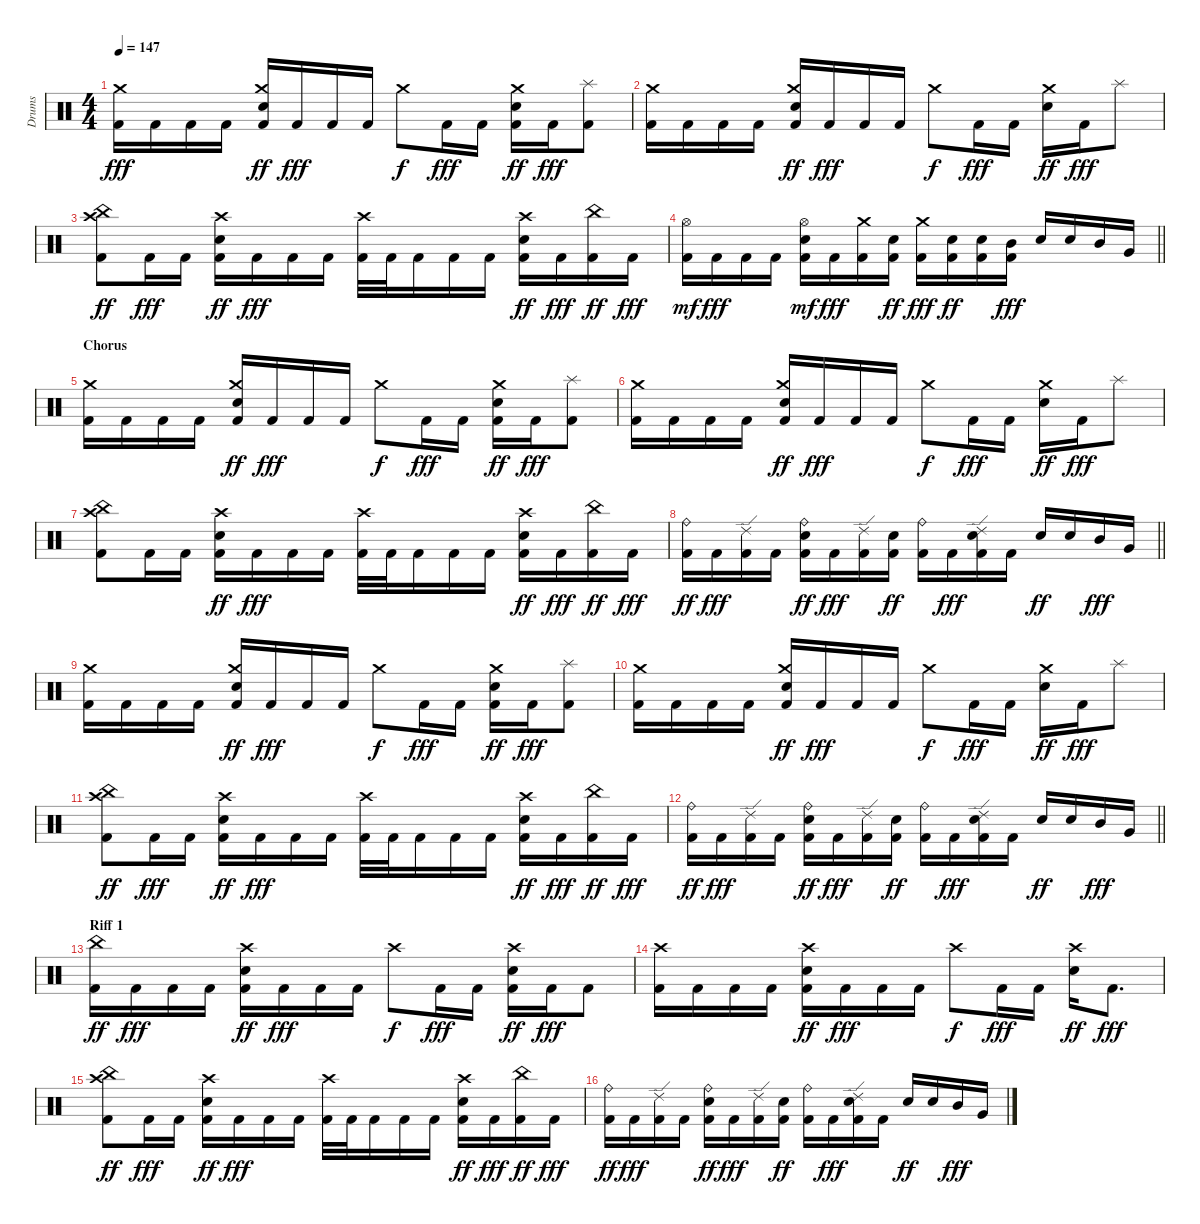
\track ("Drums" "Drums") {instrument percussion}
\staff {score}
\articulation defaults
\ts (4 4)
\tempo 147
\clef neutral
\ks c
("Kick (hit) 2" "Crash medium (hit)").16{dy fff} "Kick (hit) 2".16 "Kick (hit) 2".16 "Kick (hit) 2".16 ("Kick (hit) 2" "Snare (hit) 2" "Crash medium (hit)").16{dy ff} "Kick (hit) 2".16{dy fff} "Kick (hit) 2".16 "Kick (hit) 2".16 "Crash medium (hit)".8{dy f} "Kick (hit) 2".16{dy fff} "Kick (hit) 2".16 ("Kick (hit) 2" "Snare (hit) 2" "Crash medium (hit)").16{dy ff} "Kick (hit) 2".16{dy fff} ("Kick (hit) 2" "Splash (hit)").8 |
("Kick (hit) 2" "Crash medium (hit)").16 "Kick (hit) 2".16 "Kick (hit) 2".16 "Kick (hit) 2".16 ("Kick (hit) 2" "Snare (hit) 2" "Crash medium (hit)").16{dy ff} "Kick (hit) 2".16{dy fff} "Kick (hit) 2".16 "Kick (hit) 2".16 "Crash medium (hit)".8{dy f} "Kick (hit) 2".16{dy fff} "Kick (hit) 2".16 ("Snare (hit) 2" "Crash medium (hit)").16{dy ff} "Kick (hit) 2".16{dy fff} "Splash (hit)".8 |
("Kick (hit) 2" "China (hit)" "Crash high (hit)").8{dy ff} "Kick (hit) 2".16{dy fff} "Kick (hit) 2".16 ("Kick (hit) 2" "Snare (hit) 2" "Crash high (hit)").16{dy ff} "Kick (hit) 2".16{dy fff} "Kick (hit) 2".16 "Kick (hit) 2".16 ("Kick (hit) 2" "Crash high (hit)").32 "Kick (hit) 2".32 "Kick (hit) 2".16 "Kick (hit) 2".16 "Kick (hit) 2".16 ("Kick (hit) 2" "Snare (hit) 2" "Crash high (hit)").16{dy ff} "Kick (hit) 2".16{dy fff} ("Kick (hit) 2" "China (hit)").16{dy ff} "Kick (hit) 2".16{dy fff} |
\barLineRight lightlight
("Kick (hit) 2" "Hi-Hat (open)").16{dy mf} "Kick (hit) 2".16{dy fff} "Kick (hit) 2".16 "Kick (hit) 2".16 ("Kick (hit) 2" "Snare (hit) 2" "Hi-Hat (open)").16{dy mf} "Kick (hit) 2".16{dy fff} ("Kick (hit) 2" "Crash medium (hit)").16 ("Kick (hit) 2" "Snare (hit) 2").16{dy ff} ("Kick (hit) 2" "Crash medium (hit)").16{dy fff} ("Kick (hit) 2" "Snare (hit) 2").16{dy ff} ("Kick (hit) 2" "Snare (hit) 2").16 ("Kick (hit) 2" "Mid Tom (hit)").16{dy fff} "Snare (hit) 2".16 "Snare (hit) 2".16 "Mid Tom (hit)".16 "Very Low Tom (hit)".16 |
\section ("" "Chorus")
("Kick (hit) 2" "Crash medium (hit)").16 "Kick (hit) 2".16 "Kick (hit) 2".16 "Kick (hit) 2".16 ("Kick (hit) 2" "Snare (hit) 2" "Crash medium (hit)").16{dy ff} "Kick (hit) 2".16{dy fff} "Kick (hit) 2".16 "Kick (hit) 2".16 "Crash medium (hit)".8{dy f} "Kick (hit) 2".16{dy fff} "Kick (hit) 2".16 ("Kick (hit) 2" "Snare (hit) 2" "Crash medium (hit)").16{dy ff} "Kick (hit) 2".16{dy fff} ("Kick (hit) 2" "Splash (hit)").8 |
("Kick (hit) 2" "Crash medium (hit)").16 "Kick (hit) 2".16 "Kick (hit) 2".16 "Kick (hit) 2".16 ("Kick (hit) 2" "Snare (hit) 2" "Crash medium (hit)").16{dy ff} "Kick (hit) 2".16{dy fff} "Kick (hit) 2".16 "Kick (hit) 2".16 "Crash medium (hit)".8{dy f} "Kick (hit) 2".16{dy fff} "Kick (hit) 2".16 ("Snare (hit) 2" "Crash medium (hit)").16{dy ff} "Kick (hit) 2".16{dy fff} "Splash (hit)".8 |
("Kick (hit) 2" "China (hit)" "Crash high (hit)").8 "Kick (hit) 2".16 "Kick (hit) 2".16 ("Kick (hit) 2" "Snare (hit) 2" "Crash high (hit)").16{dy ff} "Kick (hit) 2".16{dy fff} "Kick (hit) 2".16 "Kick (hit) 2".16 ("Kick (hit) 2" "Crash high (hit)").32 "Kick (hit) 2".32 "Kick (hit) 2".16 "Kick (hit) 2".16 "Kick (hit) 2".16 ("Kick (hit) 2" "Snare (hit) 2" "Crash high (hit)").16{dy ff} "Kick (hit) 2".16{dy fff} ("Kick (hit) 2" "China (hit)").16{dy ff} "Kick (hit) 2".16{dy fff} |
\barLineRight lightlight
("Kick (hit) 2" "Ride (bell)").16{dy ff} "Kick (hit) 2".16{dy fff} ("Kick (hit) 2" "Ride (edge) 2").16 "Kick (hit) 2".16 ("Kick (hit) 2" "Snare (hit) 2" "Ride (bell)").16{dy ff} "Kick (hit) 2".16{dy fff} ("Kick (hit) 2" "Ride (edge) 2").16 ("Kick (hit) 2" "Snare (hit) 2").16{dy ff} ("Kick (hit) 2" "Ride (bell)").16 "Kick (hit) 2".16{dy fff} ("Kick (hit) 2" "Snare (hit) 2" "Ride (edge) 2").16 "Kick (hit) 2".16 "Snare (hit) 2".16{dy ff} "Snare (hit) 2".16 "Mid Tom (hit)".16{dy fff} "Very Low Tom (hit)".16 |
("Kick (hit) 2" "Crash medium (hit)").16 "Kick (hit) 2".16 "Kick (hit) 2".16 "Kick (hit) 2".16 ("Kick (hit) 2" "Snare (hit) 2" "Crash medium (hit)").16{dy ff} "Kick (hit) 2".16{dy fff} "Kick (hit) 2".16 "Kick (hit) 2".16 "Crash medium (hit)".8{dy f} "Kick (hit) 2".16{dy fff} "Kick (hit) 2".16 ("Kick (hit) 2" "Snare (hit) 2" "Crash medium (hit)").16{dy ff} "Kick (hit) 2".16{dy fff} ("Kick (hit) 2" "Splash (hit)").8 |
("Kick (hit) 2" "Crash medium (hit)").16 "Kick (hit) 2".16 "Kick (hit) 2".16 "Kick (hit) 2".16 ("Kick (hit) 2" "Snare (hit) 2" "Crash medium (hit)").16{dy ff} "Kick (hit) 2".16{dy fff} "Kick (hit) 2".16 "Kick (hit) 2".16 "Crash medium (hit)".8{dy f} "Kick (hit) 2".16{dy fff} "Kick (hit) 2".16 ("Snare (hit) 2" "Crash medium (hit)").16{dy ff} "Kick (hit) 2".16{dy fff} "Splash (hit)".8 |
("Kick (hit) 2" "China (hit)" "Crash high (hit)").8{dy ff} "Kick (hit) 2".16{dy fff} "Kick (hit) 2".16 ("Kick (hit) 2" "Snare (hit) 2" "Crash high (hit)").16{dy ff} "Kick (hit) 2".16{dy fff} "Kick (hit) 2".16 "Kick (hit) 2".16 ("Kick (hit) 2" "Crash high (hit)").32 "Kick (hit) 2".32 "Kick (hit) 2".16 "Kick (hit) 2".16 "Kick (hit) 2".16 ("Kick (hit) 2" "Snare (hit) 2" "Crash high (hit)").16{dy ff} "Kick (hit) 2".16{dy fff} ("Kick (hit) 2" "China (hit)").16{dy ff} "Kick (hit) 2".16{dy fff} |
\barLineRight lightlight
("Kick (hit) 2" "Ride (bell)").16{dy ff} "Kick (hit) 2".16{dy fff} ("Kick (hit) 2" "Ride (edge) 2").16 "Kick (hit) 2".16 ("Kick (hit) 2" "Snare (hit) 2" "Ride (bell)").16{dy ff} "Kick (hit) 2".16{dy fff} ("Kick (hit) 2" "Ride (edge) 2").16 ("Kick (hit) 2" "Snare (hit) 2").16{dy ff} ("Kick (hit) 2" "Ride (bell)").16 "Kick (hit) 2".16{dy fff} ("Kick (hit) 2" "Snare (hit) 2" "Ride (edge) 2").16 "Kick (hit) 2".16 "Snare (hit) 2".16{dy ff} "Snare (hit) 2".16 "Mid Tom (hit)".16{dy fff} "Very Low Tom (hit)".16 |
\section ("" "Riff 1")
("Kick (hit) 2" "China (hit)").16{dy ff} "Kick (hit) 2".16{dy fff} "Kick (hit) 2".16 "Kick (hit) 2".16 ("Kick (hit) 2" "Snare (hit) 2" "Crash high (hit)").16{dy ff} "Kick (hit) 2".16{dy fff} "Kick (hit) 2".16 "Kick (hit) 2".16 "Crash high (hit)".8{dy f} "Kick (hit) 2".16{dy fff} "Kick (hit) 2".16 ("Kick (hit) 2" "Snare (hit) 2" "Crash high (hit)").16{dy ff} "Kick (hit) 2".16{dy fff} "Kick (hit) 2".8 |
("Kick (hit) 2" "Crash high (hit)").16 "Kick (hit) 2".16 "Kick (hit) 2".16 "Kick (hit) 2".16 ("Kick (hit) 2" "Snare (hit) 2" "Crash high (hit)").16{dy ff} "Kick (hit) 2".16{dy fff} "Kick (hit) 2".16 "Kick (hit) 2".16 "Crash high (hit)".8{dy f} "Kick (hit) 2".16{dy fff} "Kick (hit) 2".16 ("Snare (hit) 2" "Crash high (hit)").16{dy ff} "Kick (hit) 2".8{d dy fff} |
("Kick (hit) 2" "China (hit)" "Crash high (hit)").8{dy ff} "Kick (hit) 2".16{dy fff} "Kick (hit) 2".16 ("Kick (hit) 2" "Snare (hit) 2" "Crash high (hit)").16{dy ff} "Kick (hit) 2".16{dy fff} "Kick (hit) 2".16 "Kick (hit) 2".16 ("Kick (hit) 2" "Crash high (hit)").32 "Kick (hit) 2".32 "Kick (hit) 2".16 "Kick (hit) 2".16 "Kick (hit) 2".16 ("Kick (hit) 2" "Snare (hit) 2" "Crash high (hit)").16{dy ff} "Kick (hit) 2".16{dy fff} ("Kick (hit) 2" "China (hit)").16{dy ff} "Kick (hit) 2".16{dy fff} |
("Kick (hit) 2" "Ride (bell)").16{dy ff} "Kick (hit) 2".16{dy fff} ("Kick (hit) 2" "Ride (edge) 2").16 "Kick (hit) 2".16 ("Kick (hit) 2" "Snare (hit) 2" "Ride (bell)").16{dy ff} "Kick (hit) 2".16{dy fff} ("Kick (hit) 2" "Ride (edge) 2").16 ("Kick (hit) 2" "Snare (hit) 2").16{dy ff} ("Kick (hit) 2" "Ride (bell)").16 "Kick (hit) 2".16{dy fff} ("Kick (hit) 2" "Snare (hit) 2" "Ride (edge) 2").16 "Kick (hit) 2".16 "Snare (hit) 2".16{dy ff} "Snare (hit) 2".16 "Mid Tom (hit)".16{dy fff} "Very Low Tom (hit)".16
